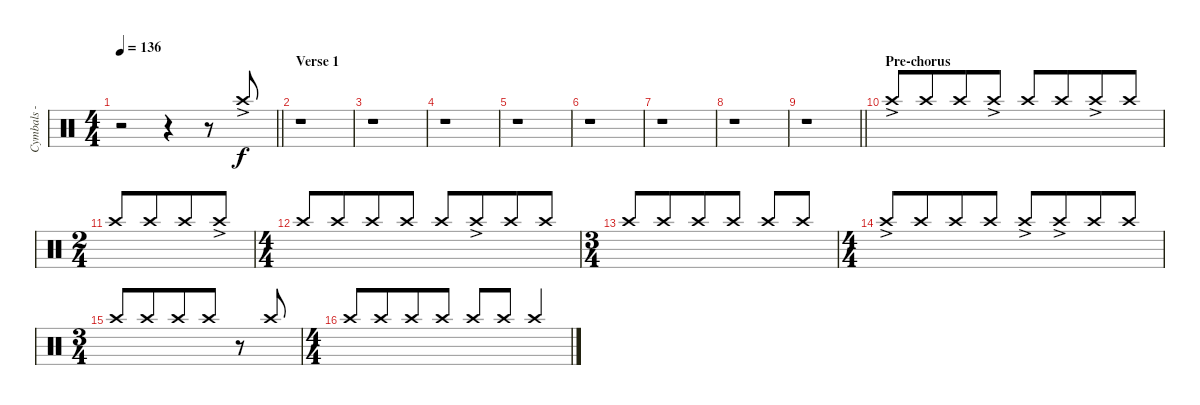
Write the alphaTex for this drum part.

\track ("Cymbals - crash - left" "Cymbals - ") {instrument percussion}
\staff {score}
\articulation defaults
\ts (4 4)
\tempo 136
\clef neutral
\barLineRight lightlight
\ks c
r.2{dy f} r.4 r.8 "Crash high (hit)"{ac}.8{beam Up} |
\section ("" "Verse 1")
r.1 |
r.1 |
r.1 |
r.1 |
r.1 |
r.1 |
r.1 |
\barLineRight lightlight
r.1 |
\section ("" "Pre-chorus")
"Crash high (hit)"{ac}.8{beam Up} "Crash high (hit)".8{beam Up beam merge} "Crash high (hit)".8{beam Up} "Crash high (hit)"{ac}.8{beam Up} "Crash high (hit)".8{beam Up} "Crash high (hit)".8{beam Up beam merge} "Crash high (hit)"{ac}.8{beam Up} "Crash high (hit)".8{beam Up} |
\ts (2 4)
"Crash high (hit)".8{beam Up} "Crash high (hit)".8{beam Up beam merge} "Crash high (hit)".8{beam Up} "Crash high (hit)"{ac}.8{beam Up} |
\ts (4 4)
"Crash high (hit)".8{beam Up} "Crash high (hit)".8{beam Up beam merge} "Crash high (hit)".8{beam Up} "Crash high (hit)".8{beam Up} "Crash high (hit)".8{beam Up} "Crash high (hit)"{ac}.8{beam Up beam merge} "Crash high (hit)".8{beam Up} "Crash high (hit)".8{beam Up} |
\ts (3 4)
"Crash high (hit)".8{beam Up} "Crash high (hit)".8{beam Up beam merge} "Crash high (hit)".8{beam Up} "Crash high (hit)".8{beam Up} "Crash high (hit)".8{beam Up} "Crash high (hit)".8{beam Up} |
\ts (4 4)
"Crash high (hit)"{ac}.8{beam Up} "Crash high (hit)".8{beam Up beam merge} "Crash high (hit)".8{beam Up} "Crash high (hit)".8{beam Up} "Crash high (hit)"{ac}.8{beam Up} "Crash high (hit)"{ac}.8{beam Up beam merge} "Crash high (hit)".8{beam Up} "Crash high (hit)".8{beam Up} |
\ts (3 4)
"Crash high (hit)".8{beam Up} "Crash high (hit)".8{beam Up beam merge} "Crash high (hit)".8{beam Up} "Crash high (hit)".8{beam Up} r.8 "Crash high (hit)".8{beam Up} |
\ts (4 4)
"Crash high (hit)".8{beam Up} "Crash high (hit)".8{beam Up beam merge} "Crash high (hit)".8{beam Up} "Crash high (hit)".8{beam Up} "Crash high (hit)".8{beam Up} "Crash high (hit)".8{beam Up} "Crash high (hit)".4{beam Up}
